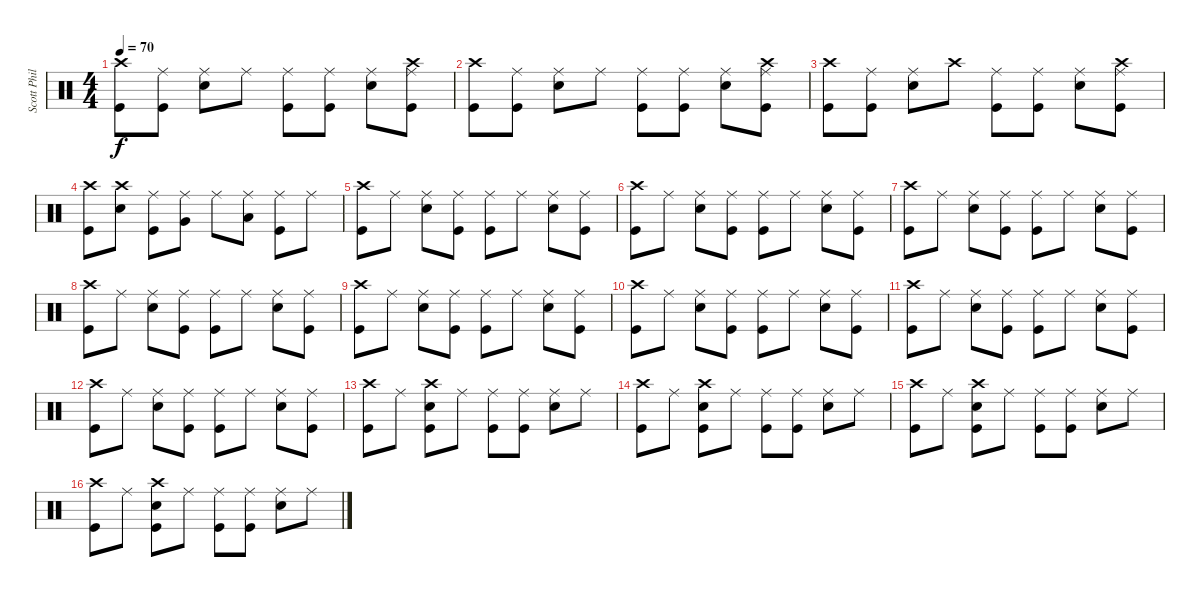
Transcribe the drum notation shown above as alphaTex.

\track ("Scott Phillips" "Scott Phil") {instrument percussion}
\staff {score}
\articulation defaults
\ts (4 4)
\tempo 70
\clef neutral
\ks c
("Crash high (hit)" "Kick (hit)").8{dy f} ("Ride (middle)" "Kick (hit)").8 ("Ride (middle)" "Snare (hit) 2").8 "Ride (middle)".8 ("Ride (middle)" "Kick (hit)").8 ("Ride (middle)" "Kick (hit)").8 ("Ride (middle)" "Snare (hit) 2").8 ("Crash high (hit)" "Ride (middle)" "Kick (hit)").8 |
("Crash high (hit)" "Kick (hit)").8 ("Ride (middle)" "Kick (hit)").8 ("Ride (middle)" "Snare (hit) 2").8 "Ride (middle)".8 ("Ride (middle)" "Kick (hit)").8 ("Ride (middle)" "Kick (hit)").8 ("Ride (middle)" "Snare (hit) 2").8 ("Crash high (hit)" "Ride (middle)" "Kick (hit)").8 |
("Crash high (hit)" "Kick (hit)").8 ("Ride (middle)" "Kick (hit)").8 ("Ride (middle)" "Snare (hit) 2").8 "Crash high (hit)".8 ("Ride (middle)" "Kick (hit)").8 ("Ride (middle)" "Kick (hit)").8 ("Ride (middle)" "Snare (hit) 2").8 ("Crash high (hit)" "Ride (middle)" "Kick (hit)").8 |
("Crash high (hit)" "Kick (hit)").8 ("Crash high (hit)" "Snare (hit) 2").8 ("Ride (middle)" "Kick (hit)").8 ("Very Low Tom (hit)" "Ride (middle)").8 "Ride (middle)".8 ("Low Floor Tom (hit)" "Ride (middle)").8 ("Ride (middle)" "Kick (hit)").8 "Ride (middle)".8 |
("Crash high (hit)" "Kick (hit)").8 "Ride (middle)".8 ("Ride (middle)" "Snare (hit) 2").8 ("Ride (middle)" "Kick (hit)").8 ("Ride (middle)" "Kick (hit)").8 "Ride (middle)".8 ("Ride (middle)" "Snare (hit) 2").8 ("Ride (middle)" "Kick (hit)").8 |
("Crash high (hit)" "Kick (hit)").8 "Ride (middle)".8 ("Ride (middle)" "Snare (hit) 2").8 ("Ride (middle)" "Kick (hit)").8 ("Ride (middle)" "Kick (hit)").8 "Ride (middle)".8 ("Ride (middle)" "Snare (hit) 2").8 ("Ride (middle)" "Kick (hit)").8 |
("Crash high (hit)" "Kick (hit)").8 "Ride (middle)".8 ("Ride (middle)" "Snare (hit) 2").8 ("Ride (middle)" "Kick (hit)").8 ("Ride (middle)" "Kick (hit)").8 "Ride (middle)".8 ("Ride (middle)" "Snare (hit) 2").8 ("Ride (middle)" "Kick (hit)").8 |
("Crash high (hit)" "Kick (hit)").8 "Ride (middle)".8 ("Ride (middle)" "Snare (hit) 2").8 ("Ride (middle)" "Kick (hit)").8 ("Ride (middle)" "Kick (hit)").8 "Ride (middle)".8 ("Ride (middle)" "Snare (hit) 2").8 ("Ride (middle)" "Kick (hit)").8 |
("Crash high (hit)" "Kick (hit)").8 "Ride (middle)".8 ("Ride (middle)" "Snare (hit) 2").8 ("Ride (middle)" "Kick (hit)").8 ("Ride (middle)" "Kick (hit)").8 "Ride (middle)".8 ("Ride (middle)" "Snare (hit) 2").8 ("Ride (middle)" "Kick (hit)").8 |
("Crash high (hit)" "Kick (hit)").8 "Ride (middle)".8 ("Ride (middle)" "Snare (hit) 2").8 ("Ride (middle)" "Kick (hit)").8 ("Ride (middle)" "Kick (hit)").8 "Ride (middle)".8 ("Ride (middle)" "Snare (hit) 2").8 ("Ride (middle)" "Kick (hit)").8 |
("Crash high (hit)" "Kick (hit)").8 "Ride (middle)".8 ("Ride (middle)" "Snare (hit) 2").8 ("Ride (middle)" "Kick (hit)").8 ("Ride (middle)" "Kick (hit)").8 "Ride (middle)".8 ("Ride (middle)" "Snare (hit) 2").8 ("Ride (middle)" "Kick (hit)").8 |
("Crash high (hit)" "Kick (hit)").8 "Ride (middle)".8 ("Ride (middle)" "Snare (hit) 2").8 ("Ride (middle)" "Kick (hit)").8 ("Ride (middle)" "Kick (hit)").8 "Ride (middle)".8 ("Ride (middle)" "Snare (hit) 2").8 ("Ride (middle)" "Kick (hit)").8 |
("Crash high (hit)" "Kick (hit)").8 "Ride (middle)".8 ("Crash high (hit)" "Snare (hit) 2" "Kick (hit)").8 "Ride (middle)".8 ("Ride (middle)" "Kick (hit)").8 ("Ride (middle)" "Kick (hit)").8 ("Ride (middle)" "Snare (hit) 2").8 "Ride (middle)".8 |
("Crash high (hit)" "Kick (hit)").8 "Ride (middle)".8 ("Crash high (hit)" "Snare (hit) 2" "Kick (hit)").8 "Ride (middle)".8 ("Ride (middle)" "Kick (hit)").8 ("Ride (middle)" "Kick (hit)").8 ("Ride (middle)" "Snare (hit) 2").8 "Ride (middle)".8 |
("Crash high (hit)" "Kick (hit)").8 "Ride (middle)".8 ("Crash high (hit)" "Snare (hit) 2" "Kick (hit)").8 "Ride (middle)".8 ("Ride (middle)" "Kick (hit)").8 ("Ride (middle)" "Kick (hit)").8 ("Ride (middle)" "Snare (hit) 2").8 "Ride (middle)".8 |
("Crash high (hit)" "Kick (hit)").8 "Ride (middle)".8 ("Crash high (hit)" "Snare (hit) 2" "Kick (hit)").8 "Ride (middle)".8 ("Ride (middle)" "Kick (hit)").8 ("Ride (middle)" "Kick (hit)").8 ("Ride (middle)" "Snare (hit) 2").8 "Ride (middle)".8
